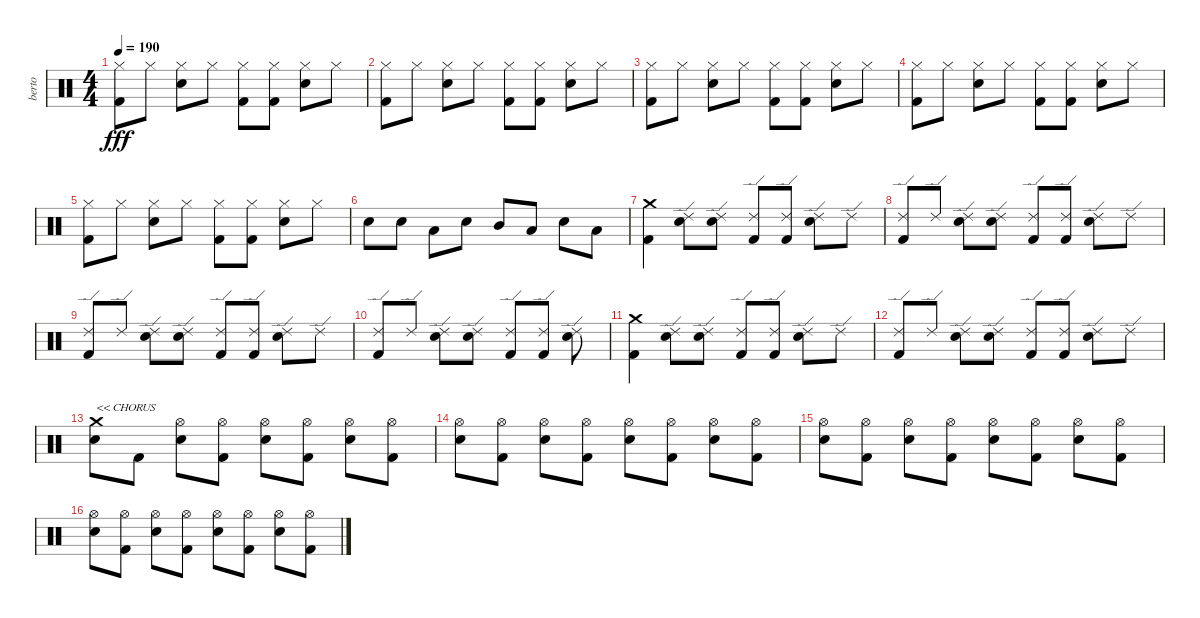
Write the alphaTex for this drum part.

\track ("berto" "berto") {instrument percussion}
\staff {score}
\articulation defaults
\ts (4 4)
\tempo 190
\clef neutral
\ks c
("Hi-Hat (closed)" "Kick (hit) 2").8{dy fff} "Hi-Hat (closed)".8 ("Hi-Hat (closed)" "Snare (hit) 2").8 "Hi-Hat (closed)".8 ("Hi-Hat (closed)" "Kick (hit) 2").8 ("Hi-Hat (closed)" "Kick (hit) 2").8 ("Hi-Hat (closed)" "Snare (hit) 2").8 "Hi-Hat (closed)".8 |
("Hi-Hat (closed)" "Kick (hit) 2").8 "Hi-Hat (closed)".8 ("Hi-Hat (closed)" "Snare (hit) 2").8 "Hi-Hat (closed)".8 ("Hi-Hat (closed)" "Kick (hit) 2").8 ("Hi-Hat (closed)" "Kick (hit) 2").8 ("Hi-Hat (closed)" "Snare (hit) 2").8 "Hi-Hat (closed)".8 |
("Hi-Hat (closed)" "Kick (hit) 2").8 "Hi-Hat (closed)".8 ("Hi-Hat (closed)" "Snare (hit) 2").8 "Hi-Hat (closed)".8 ("Hi-Hat (closed)" "Kick (hit) 2").8 ("Hi-Hat (closed)" "Kick (hit) 2").8 ("Hi-Hat (closed)" "Snare (hit) 2").8 "Hi-Hat (closed)".8 |
("Hi-Hat (closed)" "Kick (hit) 2").8 "Hi-Hat (closed)".8 ("Hi-Hat (closed)" "Snare (hit) 2").8 "Hi-Hat (closed)".8 ("Hi-Hat (closed)" "Kick (hit) 2").8 ("Hi-Hat (closed)" "Kick (hit) 2").8 ("Hi-Hat (closed)" "Snare (hit) 2").8 "Hi-Hat (closed)".8 |
("Hi-Hat (closed)" "Kick (hit) 2").8 "Hi-Hat (closed)".8 ("Hi-Hat (closed)" "Snare (hit) 2").8 "Hi-Hat (closed)".8 ("Hi-Hat (closed)" "Kick (hit) 2").8 ("Hi-Hat (closed)" "Kick (hit) 2").8 ("Hi-Hat (closed)" "Snare (hit) 2").8 "Hi-Hat (closed)".8 |
"Snare (hit) 2".8 "Snare (hit) 2".8 "Low Tom (hit)".8 "Snare (hit) 2".8 "Mid Tom (hit)".8 "Low Tom (hit)".8 "Snare (hit) 2".8 "Low Floor Tom (hit)".8 |
("Crash medium (hit)" "Kick (hit) 2").4 ("Ride (edge) 2" "Snare (hit) 2").8 ("Ride (edge) 2" "Snare (hit) 2").8 ("Ride (edge) 2" "Kick (hit) 2").8 ("Ride (edge) 2" "Kick (hit) 2").8 ("Ride (edge) 2" "Snare (hit) 2").8 "Ride (edge) 2".8 |
("Ride (edge) 2" "Kick (hit) 2").8 "Ride (edge) 2".8 ("Ride (edge) 2" "Snare (hit) 2").8 ("Ride (edge) 2" "Snare (hit) 2").8 ("Ride (edge) 2" "Kick (hit) 2").8 ("Ride (edge) 2" "Kick (hit) 2").8 ("Ride (edge) 2" "Snare (hit) 2").8 "Ride (edge) 2".8 |
("Ride (edge) 2" "Kick (hit) 2").8 "Ride (edge) 2".8 ("Ride (edge) 2" "Snare (hit) 2").8 ("Ride (edge) 2" "Snare (hit) 2").8 ("Ride (edge) 2" "Kick (hit) 2").8 ("Ride (edge) 2" "Kick (hit) 2").8 ("Ride (edge) 2" "Snare (hit) 2").8 "Ride (edge) 2".8 |
("Ride (edge) 2" "Kick (hit) 2").8 "Ride (edge) 2".8 ("Ride (edge) 2" "Snare (hit) 2").8 ("Ride (edge) 2" "Snare (hit) 2").8 ("Ride (edge) 2" "Kick (hit) 2").8 ("Ride (edge) 2" "Kick (hit) 2").8 ("Ride (edge) 2" "Snare (hit) 2").8 |
("Crash medium (hit)" "Kick (hit) 2").4 ("Ride (edge) 2" "Snare (hit) 2").8 ("Ride (edge) 2" "Snare (hit) 2").8 ("Ride (edge) 2" "Kick (hit) 2").8 ("Ride (edge) 2" "Kick (hit) 2").8 ("Ride (edge) 2" "Snare (hit) 2").8 "Ride (edge) 2".8 |
("Ride (edge) 2" "Kick (hit) 2").8 "Ride (edge) 2".8 ("Ride (edge) 2" "Snare (hit) 2").8 ("Ride (edge) 2" "Snare (hit) 2").8 ("Ride (edge) 2" "Kick (hit) 2").8 ("Ride (edge) 2" "Kick (hit) 2").8 ("Ride (edge) 2" "Snare (hit) 2").8 "Ride (edge) 2".8 |
("Crash medium (hit)" "Snare (hit) 2").8{txt "<< CHORUS"} "Kick (hit) 2".8 ("Hi-Hat (open)" "Snare (hit) 2").8 ("Hi-Hat (open)" "Kick (hit) 2").8 ("Hi-Hat (open)" "Snare (hit) 2").8 ("Hi-Hat (open)" "Kick (hit) 2").8 ("Hi-Hat (open)" "Snare (hit) 2").8 ("Hi-Hat (open)" "Kick (hit) 2").8 |
("Hi-Hat (open)" "Snare (hit) 2").8 ("Hi-Hat (open)" "Kick (hit) 2").8 ("Hi-Hat (open)" "Snare (hit) 2").8 ("Hi-Hat (open)" "Kick (hit) 2").8 ("Hi-Hat (open)" "Snare (hit) 2").8 ("Hi-Hat (open)" "Kick (hit) 2").8 ("Hi-Hat (open)" "Snare (hit) 2").8 ("Hi-Hat (open)" "Kick (hit) 2").8 |
("Hi-Hat (open)" "Snare (hit) 2").8 ("Hi-Hat (open)" "Kick (hit) 2").8 ("Hi-Hat (open)" "Snare (hit) 2").8 ("Hi-Hat (open)" "Kick (hit) 2").8 ("Hi-Hat (open)" "Snare (hit) 2").8 ("Hi-Hat (open)" "Kick (hit) 2").8 ("Hi-Hat (open)" "Snare (hit) 2").8 ("Hi-Hat (open)" "Kick (hit) 2").8 |
("Hi-Hat (open)" "Snare (hit) 2").8 ("Hi-Hat (open)" "Kick (hit) 2").8 ("Hi-Hat (open)" "Snare (hit) 2").8 ("Hi-Hat (open)" "Kick (hit) 2").8 ("Hi-Hat (open)" "Snare (hit) 2").8 ("Hi-Hat (open)" "Kick (hit) 2").8 ("Hi-Hat (open)" "Snare (hit) 2").8 ("Hi-Hat (open)" "Kick (hit) 2").8
